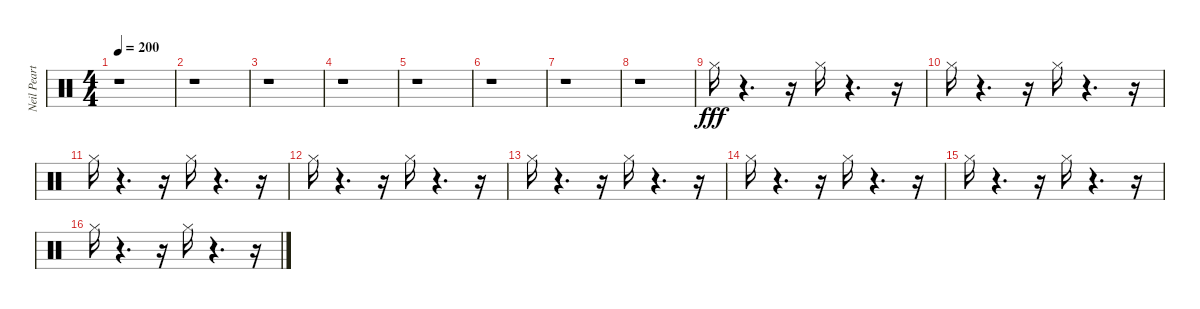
\track ("Neil Peart" "Neil Peart") {instrument percussion}
\staff {score}
\articulation defaults
\ts (4 4)
\tempo 200
\clef neutral
\ks c
r.1{dy fff} |
r.1 |
r.1 |
r.1 |
r.1 |
r.1 |
r.1 |
r.1 |
"Hi-Hat (closed)".16 r.4{d} r.16 "Hi-Hat (closed)".16 r.4{d} r.16 |
"Hi-Hat (closed)".16 r.4{d} r.16 "Hi-Hat (closed)".16 r.4{d} r.16 |
"Hi-Hat (closed)".16 r.4{d} r.16 "Hi-Hat (closed)".16 r.4{d} r.16 |
"Hi-Hat (closed)".16 r.4{d} r.16 "Hi-Hat (closed)".16 r.4{d} r.16 |
"Hi-Hat (closed)".16 r.4{d} r.16 "Hi-Hat (closed)".16 r.4{d} r.16 |
"Hi-Hat (closed)".16 r.4{d} r.16 "Hi-Hat (closed)".16 r.4{d} r.16 |
"Hi-Hat (closed)".16 r.4{d} r.16 "Hi-Hat (closed)".16 r.4{d} r.16 |
"Hi-Hat (closed)".16 r.4{d} r.16 "Hi-Hat (closed)".16 r.4{d} r.16
